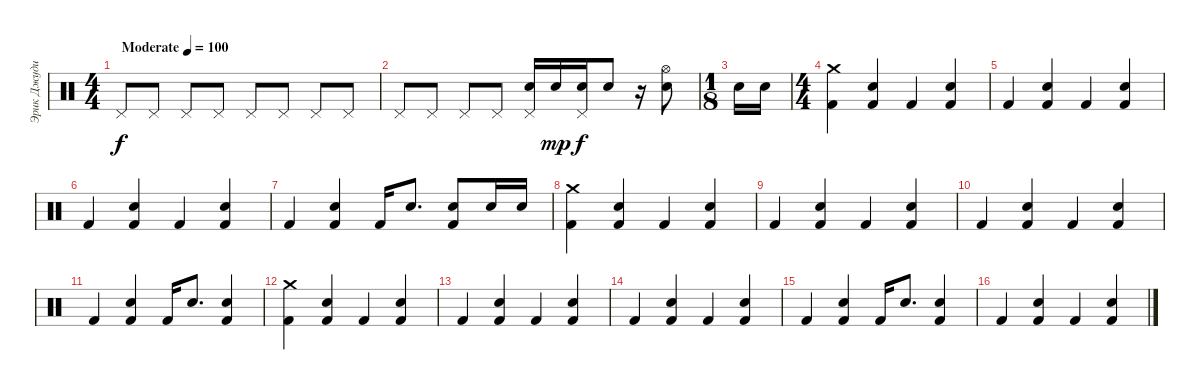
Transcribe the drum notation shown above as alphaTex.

\track ("Эрик Джуди" "Эрик Джуди") {instrument percussion}
\staff {score}
\articulation defaults
\ts (4 4)
\tempo (100 "Moderate")
\clef neutral
\ks c "Pedal Hi-Hat (hit)".8{dy f volume 10} "Pedal Hi-Hat (hit)".8 "Pedal Hi-Hat (hit)".8 "Pedal Hi-Hat (hit)".8 "Pedal Hi-Hat (hit)".8 "Pedal Hi-Hat (hit)".8 "Pedal Hi-Hat (hit)".8 "Pedal Hi-Hat (hit)".8
|
"Pedal Hi-Hat (hit)".8 "Pedal Hi-Hat (hit)".8 "Pedal Hi-Hat (hit)".8 "Pedal Hi-Hat (hit)".8 ("Pedal Hi-Hat (hit)" "Electric Snare (hit)").16{volume 16} "Electric Snare (hit)".16{dy mp} ("Pedal Hi-Hat (hit)" "Electric Snare (hit)").16{dy f} "Electric Snare (hit)".8 r.16 ("Hi-Hat (open)" "Electric Snare (hit)").8 |
\ts (1 8)
"Electric Snare (hit)".16 "Electric Snare (hit)".16 |
\ts (4 4)
("Crash medium (hit)" "Kick (hit) 2").4 ("Electric Snare (hit)" "Kick (hit) 2").4 "Kick (hit) 2".4 ("Electric Snare (hit)" "Kick (hit) 2").4 |
"Kick (hit) 2".4 ("Electric Snare (hit)" "Kick (hit) 2").4 "Kick (hit) 2".4 ("Electric Snare (hit)" "Kick (hit) 2").4 |
"Kick (hit) 2".4 ("Electric Snare (hit)" "Kick (hit) 2").4 "Kick (hit) 2".4 ("Electric Snare (hit)" "Kick (hit) 2").4 |
"Kick (hit) 2".4 ("Electric Snare (hit)" "Kick (hit) 2").4 "Kick (hit) 2".16 "Electric Snare (hit)".8{d} ("Electric Snare (hit)" "Kick (hit) 2").8 "Electric Snare (hit)".16 "Electric Snare (hit)".16 |
("Crash medium (hit)" "Kick (hit) 2").4 ("Electric Snare (hit)" "Kick (hit) 2").4 "Kick (hit) 2".4 ("Electric Snare (hit)" "Kick (hit) 2").4 |
"Kick (hit) 2".4 ("Electric Snare (hit)" "Kick (hit) 2").4 "Kick (hit) 2".4 ("Electric Snare (hit)" "Kick (hit) 2").4 |
"Kick (hit) 2".4 ("Electric Snare (hit)" "Kick (hit) 2").4 "Kick (hit) 2".4 ("Electric Snare (hit)" "Kick (hit) 2").4 |
"Kick (hit) 2".4 ("Electric Snare (hit)" "Kick (hit) 2").4 "Kick (hit) 2".16 "Electric Snare (hit)".8{d} ("Electric Snare (hit)" "Kick (hit) 2").4 |
("Crash medium (hit)" "Kick (hit) 2").4 ("Electric Snare (hit)" "Kick (hit) 2").4 "Kick (hit) 2".4 ("Electric Snare (hit)" "Kick (hit) 2").4 |
"Kick (hit) 2".4 ("Electric Snare (hit)" "Kick (hit) 2").4 "Kick (hit) 2".4 ("Electric Snare (hit)" "Kick (hit) 2").4 |
"Kick (hit) 2".4 ("Electric Snare (hit)" "Kick (hit) 2").4 "Kick (hit) 2".4 ("Electric Snare (hit)" "Kick (hit) 2").4 |
"Kick (hit) 2".4 ("Electric Snare (hit)" "Kick (hit) 2").4 "Kick (hit) 2".16 "Electric Snare (hit)".8{d} ("Electric Snare (hit)" "Kick (hit) 2").4 |
"Kick (hit) 2".4 ("Electric Snare (hit)" "Kick (hit) 2").4 "Kick (hit) 2".4 ("Electric Snare (hit)" "Kick (hit) 2").4
